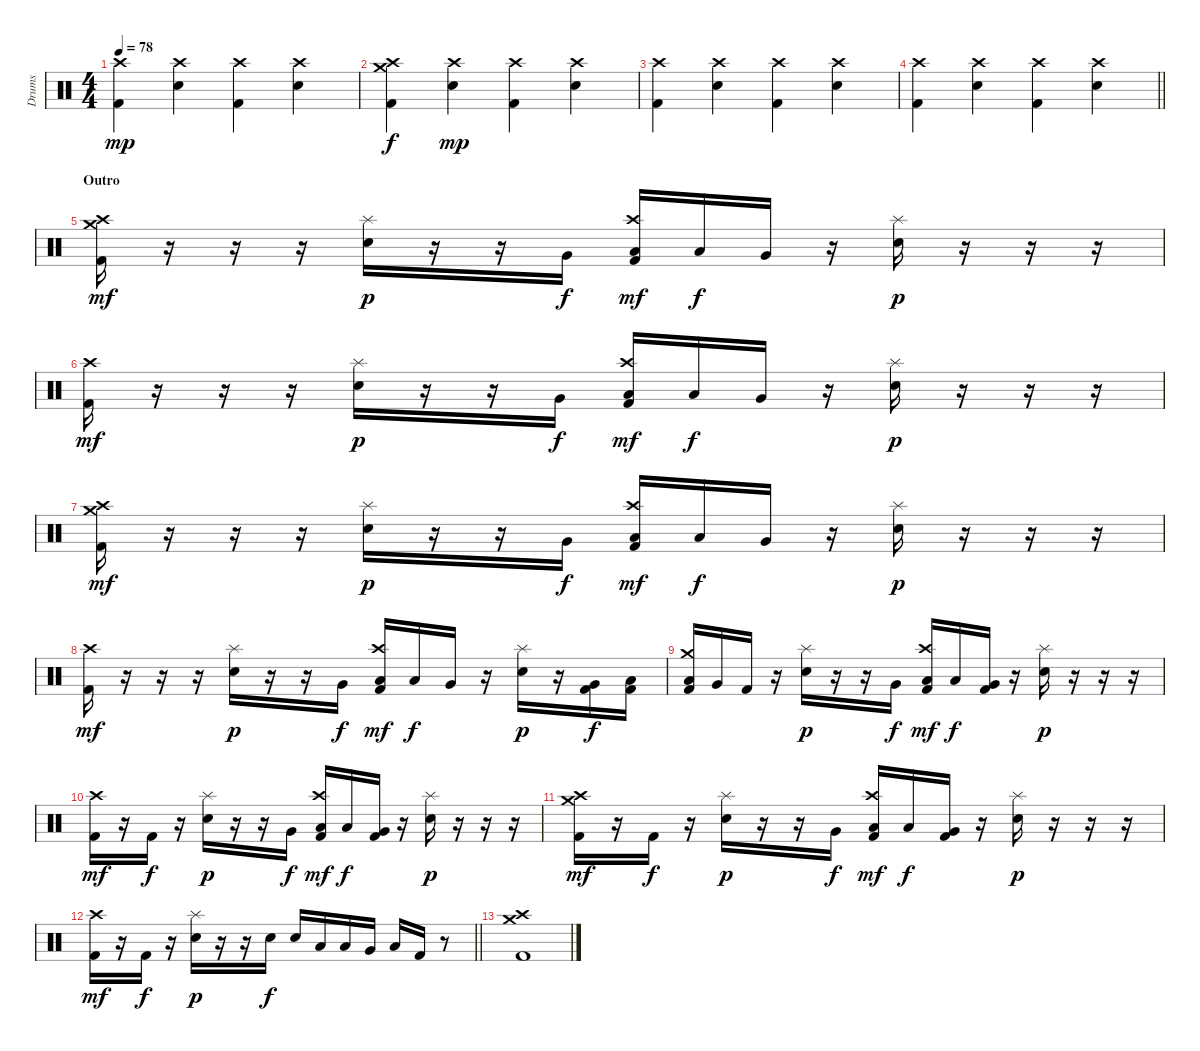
\track ("Drums" "Drums") {instrument percussion}
\staff {score}
\articulation defaults
\ts (4 4)
\tempo 78
\clef neutral
\ks c
("Kick (hit) 2" "Crash high (hit)").4{dy mp} ("Snare (hit) 2" "Crash high (hit)").4 ("Kick (hit) 2" "Crash high (hit)").4 ("Snare (hit) 2" "Crash high (hit)").4 |
("Kick (hit) 2" "Crash high (hit)" "Crash medium (hit)").4{dy f} ("Snare (hit) 2" "Crash high (hit)").4{dy mp} ("Kick (hit) 2" "Crash high (hit)").4 ("Snare (hit) 2" "Crash high (hit)").4 |
("Kick (hit) 2" "Crash high (hit)").4 ("Snare (hit) 2" "Crash high (hit)").4 ("Kick (hit) 2" "Crash high (hit)").4 ("Snare (hit) 2" "Crash high (hit)").4 |
\barLineRight lightlight
("Kick (hit) 2" "Crash high (hit)").4 ("Snare (hit) 2" "Crash high (hit)").4 ("Kick (hit) 2" "Crash high (hit)").4 ("Snare (hit) 2" "Crash high (hit)").4 |
\section ("" "Outro")
("Kick (hit) 2" "Crash high (hit)" "Crash medium (hit)").16{dy mf} r.16 r.16 r.16 ("Snare (hit) 2" "Splash (hit)").16{dy p} r.16 r.16 "Very Low Tom (hit)".16{dy f} ("Kick (hit) 2" "Low Floor Tom (hit)" "Crash high (hit)").16{dy mf} "Low Tom (hit)".16{dy f} "Very Low Tom (hit)".16 r.16 ("Snare (hit) 2" "Splash (hit)").16{dy p} r.16 r.16 r.16 |
("Kick (hit) 2" "Crash high (hit)").16{dy mf} r.16 r.16 r.16 ("Snare (hit) 2" "Splash (hit)").16{dy p} r.16 r.16 "Very Low Tom (hit)".16{dy f} ("Kick (hit) 2" "Low Floor Tom (hit)" "Crash high (hit)").16{dy mf} "Low Tom (hit)".16{dy f} "Very Low Tom (hit)".16 r.16 ("Snare (hit) 2" "Splash (hit)").16{dy p} r.16 r.16 r.16 |
("Kick (hit) 2" "Crash high (hit)" "Crash medium (hit)").16{dy mf} r.16 r.16 r.16 ("Snare (hit) 2" "Splash (hit)").16{dy p} r.16 r.16 "Very Low Tom (hit)".16{dy f} ("Kick (hit) 2" "Low Floor Tom (hit)" "Crash high (hit)").16{dy mf} "Low Tom (hit)".16{dy f} "Very Low Tom (hit)".16 r.16 ("Snare (hit) 2" "Splash (hit)").16{dy p} r.16 r.16 r.16 |
("Kick (hit) 2" "Crash high (hit)").16{dy mf} r.16 r.16 r.16 ("Snare (hit) 2" "Splash (hit)").16{dy p} r.16 r.16 "Very Low Tom (hit)".16{dy f} ("Kick (hit) 2" "Low Floor Tom (hit)" "Crash high (hit)").16{dy mf} "Low Tom (hit)".16{dy f} "Very Low Tom (hit)".16 r.16 ("Snare (hit) 2" "Splash (hit)").16{dy p} r.16 ("Kick (hit) 2" "Very Low Tom (hit)").16{dy f} ("Kick (hit) 2" "Low Floor Tom (hit)").16 |
("Kick (hit) 2" "Low Tom (hit)" "Crash medium (hit)").16 "Very Low Tom (hit)".16 "Kick (hit) 2".16 r.16 ("Snare (hit) 2" "Splash (hit)").16{dy p} r.16 r.16 "Very Low Tom (hit)".16{dy f} ("Kick (hit) 2" "Low Floor Tom (hit)" "Crash high (hit)").16{dy mf} "Low Tom (hit)".16{dy f} ("Kick (hit) 2" "Very Low Tom (hit)").16 r.16 ("Snare (hit) 2" "Splash (hit)").16{dy p} r.16 r.16 r.16 |
("Kick (hit) 2" "Crash high (hit)").16{dy mf} r.16 "Kick (hit) 2".16{dy f} r.16 ("Snare (hit) 2" "Splash (hit)").16{dy p} r.16 r.16 "Very Low Tom (hit)".16{dy f} ("Kick (hit) 2" "Low Floor Tom (hit)" "Crash high (hit)").16{dy mf} "Low Tom (hit)".16{dy f} ("Kick (hit) 2" "Very Low Tom (hit)").16 r.16 ("Snare (hit) 2" "Splash (hit)").16{dy p} r.16 r.16 r.16 |
("Kick (hit) 2" "Crash high (hit)" "Crash medium (hit)").16{dy mf} r.16 "Kick (hit) 2".16{dy f} r.16 ("Snare (hit) 2" "Splash (hit)").16{dy p} r.16 r.16 "Very Low Tom (hit)".16{dy f} ("Kick (hit) 2" "Low Floor Tom (hit)" "Crash high (hit)").16{dy mf} "Low Tom (hit)".16{dy f} ("Kick (hit) 2" "Very Low Tom (hit)").16 r.16 ("Snare (hit) 2" "Splash (hit)").16{dy p} r.16 r.16 r.16 |
\barLineRight lightlight
("Kick (hit) 2" "Crash high (hit)").16{dy mf} r.16 "Kick (hit) 2".16{dy f} r.16 ("Snare (hit) 2" "Splash (hit)").16{dy p} r.16 r.16 "Snare (hit) 2".16{dy f} "Snare (hit) 2".16 "Low Tom (hit)".16 "Low Tom (hit)".16 "Very Low Tom (hit)".16 "Low Floor Tom (hit)".16 "Kick (hit) 2".16 r.8 |
("Kick (hit) 2" "Crash high (hit)" "Crash medium (hit)").1
